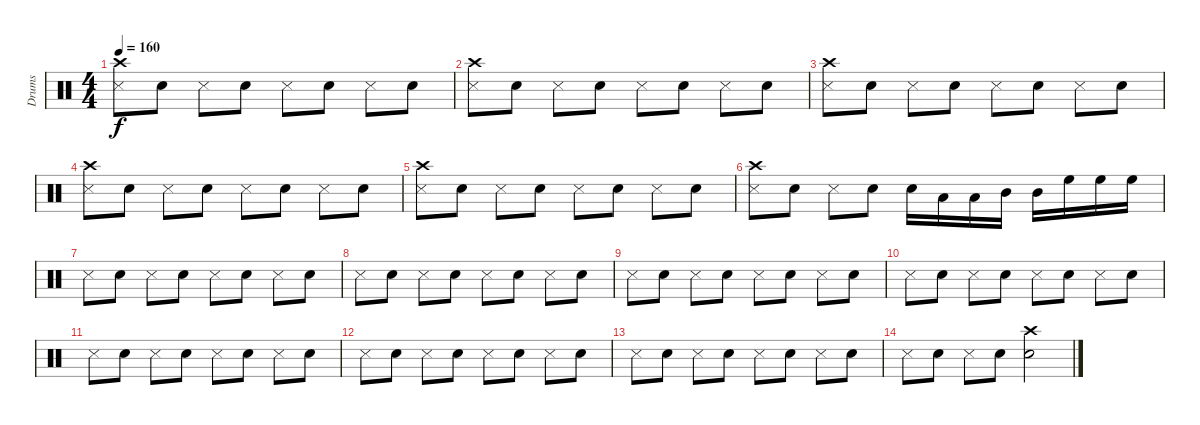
\track ("Drums " "Drums ") {instrument percussion}
\staff {score}
\articulation defaults
\ts (4 4)
\tempo 160
\clef neutral
\ks c
("Crash high (hit)" "Metronome (hit)").8{dy f} "Snare (hit) 2".8 "Metronome (hit)".8 "Snare (hit) 2".8 "Metronome (hit)".8 "Snare (hit) 2".8 "Metronome (hit)".8 "Snare (hit) 2".8 |
("Crash high (hit)" "Metronome (hit)").8 "Snare (hit) 2".8 "Metronome (hit)".8 "Snare (hit) 2".8 "Metronome (hit)".8 "Snare (hit) 2".8 "Metronome (hit)".8 "Snare (hit) 2".8 |
("Crash high (hit)" "Metronome (hit)").8 "Snare (hit) 2".8 "Metronome (hit)".8 "Snare (hit) 2".8 "Metronome (hit)".8 "Snare (hit) 2".8 "Metronome (hit)".8 "Snare (hit) 2".8 |
("Crash high (hit)" "Metronome (hit)").8 "Snare (hit) 2".8 "Metronome (hit)".8 "Snare (hit) 2".8 "Metronome (hit)".8 "Snare (hit) 2".8 "Metronome (hit)".8 "Snare (hit) 2".8 |
("Crash high (hit)" "Metronome (hit)").8 "Snare (hit) 2".8 "Metronome (hit)".8 "Snare (hit) 2".8 "Metronome (hit)".8 "Snare (hit) 2".8 "Metronome (hit)".8 "Snare (hit) 2".8 |
("Crash high (hit)" "Metronome (hit)").8 "Snare (hit) 2".8 "Metronome (hit)".8 "Snare (hit) 2".8 "Electric Snare (hit)".16 "Low Tom (hit)".16 "Low Tom (hit)".16 "Mid Tom (hit)".16 "Mid Tom (hit)".16 "High Floor Tom (hit)".16 "High Floor Tom (hit)".16 "High Floor Tom (hit)".16 |
"Metronome (hit)".8 "Snare (hit) 2".8 "Metronome (hit)".8 "Snare (hit) 2".8 "Metronome (hit)".8 "Snare (hit) 2".8 "Metronome (hit)".8 "Snare (hit) 2".8 |
"Metronome (hit)".8 "Snare (hit) 2".8 "Metronome (hit)".8 "Snare (hit) 2".8 "Metronome (hit)".8 "Snare (hit) 2".8 "Metronome (hit)".8 "Snare (hit) 2".8 |
"Metronome (hit)".8 "Snare (hit) 2".8 "Metronome (hit)".8 "Snare (hit) 2".8 "Metronome (hit)".8 "Snare (hit) 2".8 "Metronome (hit)".8 "Snare (hit) 2".8 |
"Metronome (hit)".8 "Snare (hit) 2".8 "Metronome (hit)".8 "Snare (hit) 2".8 "Metronome (hit)".8 "Snare (hit) 2".8 "Metronome (hit)".8 "Snare (hit) 2".8 |
"Metronome (hit)".8 "Snare (hit) 2".8 "Metronome (hit)".8 "Snare (hit) 2".8 "Metronome (hit)".8 "Snare (hit) 2".8 "Metronome (hit)".8 "Snare (hit) 2".8 |
"Metronome (hit)".8 "Snare (hit) 2".8 "Metronome (hit)".8 "Snare (hit) 2".8 "Metronome (hit)".8 "Snare (hit) 2".8 "Metronome (hit)".8 "Snare (hit) 2".8 |
"Metronome (hit)".8 "Snare (hit) 2".8 "Metronome (hit)".8 "Snare (hit) 2".8 "Metronome (hit)".8 "Snare (hit) 2".8 "Metronome (hit)".8 "Snare (hit) 2".8 |
"Metronome (hit)".8 "Snare (hit) 2".8 "Metronome (hit)".8 "Snare (hit) 2".8 ("Crash high (hit)" "Snare (hit) 2").2
